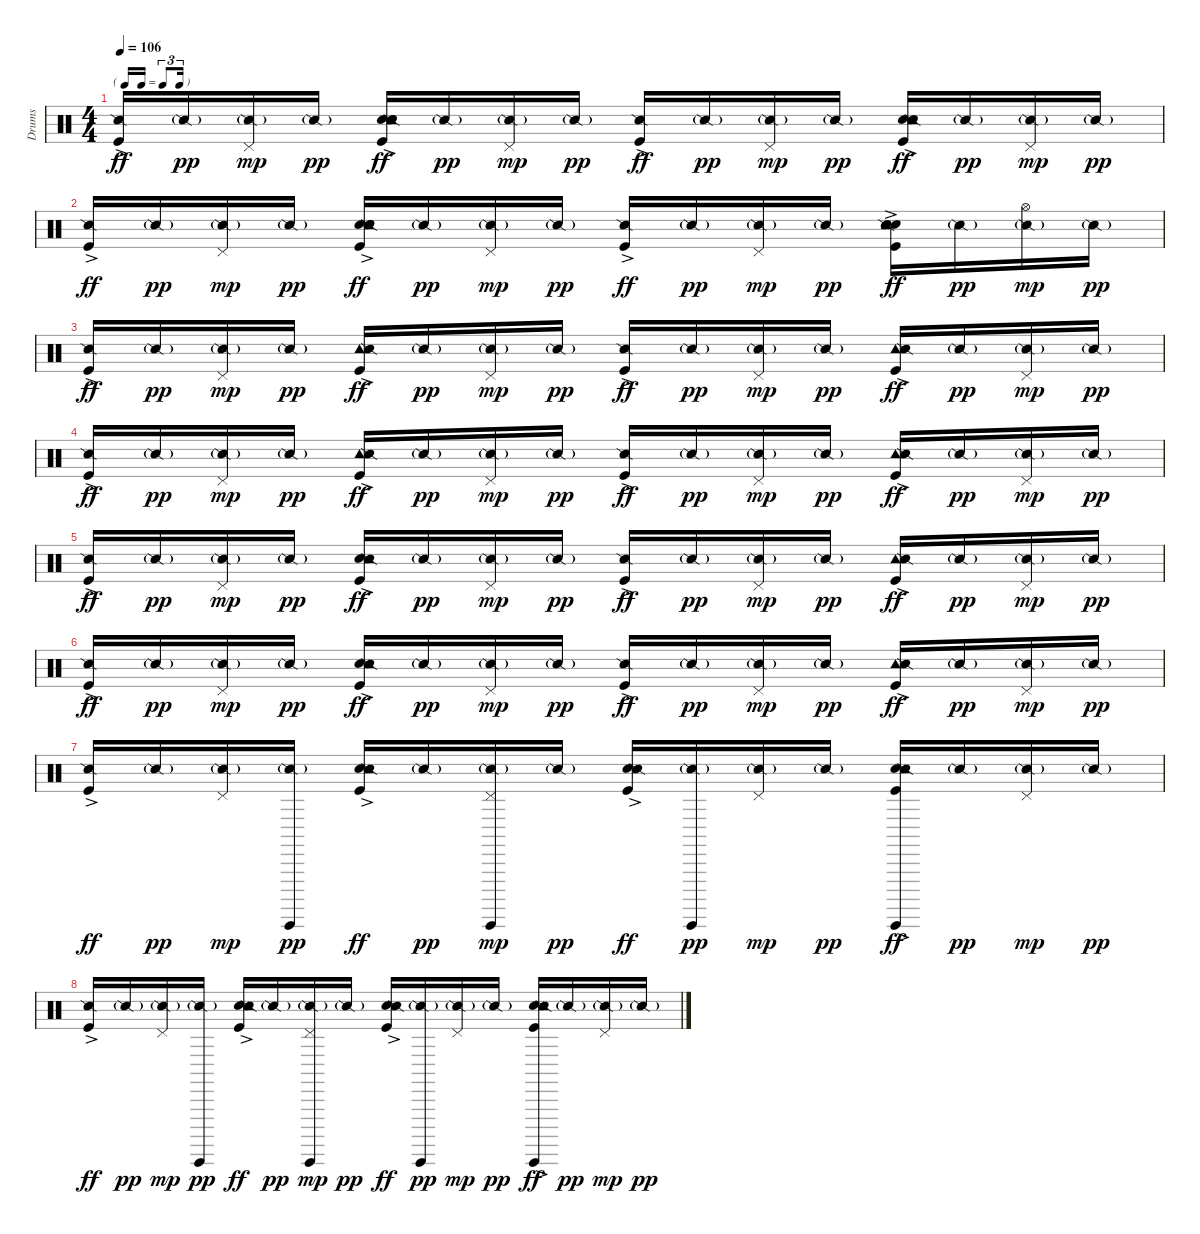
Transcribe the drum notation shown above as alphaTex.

\track ("Drums" "Drums") {instrument percussion}
\staff {score}
\articulation defaults
\ts (4 4)
\tf triplet16th
\tempo 106
\clef neutral
\ks c
("Kick (hit)"{ac} "Snare (side stick) 2").16{dy ff} "Snare (side stick) 2"{g}.16{dy pp} ("Pedal Hi-Hat (hit)" "Snare (side stick) 2"{g}).16{dy mp} "Snare (side stick) 2"{g}.16{dy pp} ("Kick (hit)"{ac} "Hand Clap (hit)" "Snare (hit) 2"{ac} "Electric Snare (hit)" "Tambourine (hit)" "Snare (side stick) 2").16{dy ff} "Snare (side stick) 2"{g}.16{dy pp} ("Pedal Hi-Hat (hit)" "Snare (side stick) 2"{g}).16{dy mp} "Snare (side stick) 2"{g}.16{dy pp} ("Kick (hit)"{ac} "Snare (side stick) 2").16{dy ff} "Snare (side stick) 2"{g}.16{dy pp} ("Pedal Hi-Hat (hit)" "Snare (side stick) 2"{g}).16{dy mp} "Snare (side stick) 2"{g}.16{dy pp} ("Kick (hit)"{ac} "Snare (hit) 2"{ac} "Electric Snare (hit)" "Tambourine (hit)" "Snare (side stick) 2").16{dy ff} "Snare (side stick) 2"{g}.16{dy pp} ("Pedal Hi-Hat (hit)" "Snare (side stick) 2"{g}).16{dy mp} "Snare (side stick) 2"{g}.16{dy pp} |
("Kick (hit)"{ac} "Snare (side stick) 2").16{dy ff} "Snare (side stick) 2"{g}.16{dy pp} ("Pedal Hi-Hat (hit)" "Snare (side stick) 2"{g}).16{dy mp} "Snare (side stick) 2"{g}.16{dy pp} ("Kick (hit)"{ac} "Hand Clap (hit)" "Snare (hit) 2"{ac} "Electric Snare (hit)" "Tambourine (hit)" "Snare (side stick) 2").16{dy ff} "Snare (side stick) 2"{g}.16{dy pp} ("Pedal Hi-Hat (hit)" "Snare (side stick) 2"{g}).16{dy mp} "Snare (side stick) 2"{g}.16{dy pp} ("Kick (hit)"{ac} "Snare (side stick) 2").16{dy ff} "Snare (side stick) 2"{g}.16{dy pp} ("Pedal Hi-Hat (hit)" "Snare (side stick) 2"{g}).16{dy mp} "Snare (side stick) 2"{g}.16{dy pp} ("Kick (hit)"{ac} "Snare (hit) 2"{ac} "Electric Snare (hit)" "Tambourine (hit)" "Snare (side stick) 2").16{dy ff} "Snare (side stick) 2"{g}.16{dy pp} ("Hi-Hat (open)" "Snare (side stick) 2"{g}).16{dy mp} "Snare (side stick) 2"{g}.16{dy pp} |
("Kick (hit)"{ac} "Snare (side stick) 2").16{dy ff} "Snare (side stick) 2"{g}.16{dy pp} ("Pedal Hi-Hat (hit)" "Snare (side stick) 2"{g}).16{dy mp} "Snare (side stick) 2"{g}.16{dy pp} ("Kick (hit)"{ac} "Tambourine (hit)" "Snare (side stick) 2").16{dy ff} "Snare (side stick) 2"{g}.16{dy pp} ("Pedal Hi-Hat (hit)" "Snare (side stick) 2"{g}).16{dy mp} "Snare (side stick) 2"{g}.16{dy pp} ("Kick (hit)"{ac} "Snare (side stick) 2").16{dy ff} "Snare (side stick) 2"{g}.16{dy pp} ("Pedal Hi-Hat (hit)" "Snare (side stick) 2"{g}).16{dy mp} "Snare (side stick) 2"{g}.16{dy pp} ("Kick (hit)"{ac} "Tambourine (hit)" "Snare (side stick) 2").16{dy ff} "Snare (side stick) 2"{g}.16{dy pp} ("Pedal Hi-Hat (hit)" "Snare (side stick) 2"{g}).16{dy mp} "Snare (side stick) 2"{g}.16{dy pp} |
("Kick (hit)"{ac} "Snare (side stick) 2").16{dy ff} "Snare (side stick) 2"{g}.16{dy pp} ("Pedal Hi-Hat (hit)" "Snare (side stick) 2"{g}).16{dy mp} "Snare (side stick) 2"{g}.16{dy pp} ("Kick (hit)"{ac} "Tambourine (hit)" "Snare (side stick) 2").16{dy ff} "Snare (side stick) 2"{g}.16{dy pp} ("Pedal Hi-Hat (hit)" "Snare (side stick) 2"{g}).16{dy mp} "Snare (side stick) 2"{g}.16{dy pp} ("Kick (hit)"{ac} "Snare (side stick) 2").16{dy ff} "Snare (side stick) 2"{g}.16{dy pp} ("Pedal Hi-Hat (hit)" "Snare (side stick) 2"{g}).16{dy mp} "Snare (side stick) 2"{g}.16{dy pp} ("Kick (hit)"{ac} "Tambourine (hit)" "Snare (side stick) 2").16{dy ff} "Snare (side stick) 2"{g}.16{dy pp} ("Pedal Hi-Hat (hit)" "Snare (side stick) 2"{g}).16{dy mp} "Snare (side stick) 2"{g}.16{dy pp} |
("Kick (hit)"{ac} "Snare (side stick) 2").16{dy ff} "Snare (side stick) 2"{g}.16{dy pp} ("Pedal Hi-Hat (hit)" "Snare (side stick) 2"{g}).16{dy mp} "Snare (side stick) 2"{g}.16{dy pp} ("Kick (hit)"{ac} "Hand Clap (hit)" "Tambourine (hit)" "Snare (side stick) 2").16{dy ff} "Snare (side stick) 2"{g}.16{dy pp} ("Pedal Hi-Hat (hit)" "Snare (side stick) 2"{g}).16{dy mp} "Snare (side stick) 2"{g}.16{dy pp} ("Kick (hit)"{ac} "Snare (side stick) 2").16{dy ff} "Snare (side stick) 2"{g}.16{dy pp} ("Pedal Hi-Hat (hit)" "Snare (side stick) 2"{g}).16{dy mp} "Snare (side stick) 2"{g}.16{dy pp} ("Kick (hit)"{ac} "Tambourine (hit)" "Snare (side stick) 2").16{dy ff} "Snare (side stick) 2"{g}.16{dy pp} ("Pedal Hi-Hat (hit)" "Snare (side stick) 2"{g}).16{dy mp} "Snare (side stick) 2"{g}.16{dy pp} |
("Kick (hit)"{ac} "Snare (side stick) 2").16{dy ff} "Snare (side stick) 2"{g}.16{dy pp} ("Pedal Hi-Hat (hit)" "Snare (side stick) 2"{g}).16{dy mp} "Snare (side stick) 2"{g}.16{dy pp} ("Kick (hit)"{ac} "Hand Clap (hit)" "Tambourine (hit)" "Snare (side stick) 2").16{dy ff} "Snare (side stick) 2"{g}.16{dy pp} ("Pedal Hi-Hat (hit)" "Snare (side stick) 2"{g}).16{dy mp} "Snare (side stick) 2"{g}.16{dy pp} ("Kick (hit)"{ac} "Snare (side stick) 2").16{dy ff} "Snare (side stick) 2"{g}.16{dy pp} ("Pedal Hi-Hat (hit)" "Snare (side stick) 2"{g}).16{dy mp} "Snare (side stick) 2"{g}.16{dy pp} ("Kick (hit)"{ac} "Tambourine (hit)" "Snare (side stick) 2").16{dy ff} "Snare (side stick) 2"{g}.16{dy pp} ("Pedal Hi-Hat (hit)" "Snare (side stick) 2"{g}).16{dy mp} "Snare (side stick) 2"{g}.16{dy pp} |
("Kick (hit)"{ac} "Snare (side stick) 2").16{dy ff} "Snare (side stick) 2"{g}.16{dy pp} ("Pedal Hi-Hat (hit)" "Snare (side stick) 2"{g}).16{dy mp} ("Guiro (hit)" "Snare (side stick) 2"{g}).16{dy pp} ("Kick (hit)"{ac} "Hand Clap (hit)" "Tambourine (hit)" "Snare (side stick) 2").16{dy ff} "Snare (side stick) 2"{g}.16{dy pp} ("Guiro (hit)" "Pedal Hi-Hat (hit)" "Snare (side stick) 2"{g}).16{dy mp} "Snare (side stick) 2"{g}.16{dy pp} ("Kick (hit)"{ac} "Hand Clap (hit)" "Snare (side stick) 2").16{dy ff} ("Guiro (hit)" "Snare (side stick) 2"{g}).16{dy pp} ("Pedal Hi-Hat (hit)" "Snare (side stick) 2"{g}).16{dy mp} "Snare (side stick) 2"{g}.16{dy pp} ("Kick (hit)"{ac} "Guiro (hit)" "Hand Clap (hit)" "Tambourine (hit)" "Snare (side stick) 2").16{dy ff} "Snare (side stick) 2"{g}.16{dy pp} ("Pedal Hi-Hat (hit)" "Snare (side stick) 2"{g}).16{dy mp} "Snare (side stick) 2"{g}.16{dy pp} |
("Kick (hit)"{ac} "Snare (side stick) 2").16{dy ff} "Snare (side stick) 2"{g}.16{dy pp} ("Pedal Hi-Hat (hit)" "Snare (side stick) 2"{g}).16{dy mp} ("Guiro (hit)" "Snare (side stick) 2"{g}).16{dy pp} ("Kick (hit)"{ac} "Hand Clap (hit)" "Tambourine (hit)" "Snare (side stick) 2").16{dy ff} "Snare (side stick) 2"{g}.16{dy pp} ("Guiro (hit)" "Pedal Hi-Hat (hit)" "Snare (side stick) 2"{g}).16{dy mp} "Snare (side stick) 2"{g}.16{dy pp} ("Kick (hit)"{ac} "Hand Clap (hit)" "Snare (side stick) 2").16{dy ff} ("Guiro (hit)" "Snare (side stick) 2"{g}).16{dy pp} ("Pedal Hi-Hat (hit)" "Snare (side stick) 2"{g}).16{dy mp} "Snare (side stick) 2"{g}.16{dy pp} ("Kick (hit)"{ac} "Guiro (hit)" "Hand Clap (hit)" "Tambourine (hit)" "Snare (side stick) 2").16{dy ff} "Snare (side stick) 2"{g}.16{dy pp} ("Pedal Hi-Hat (hit)" "Snare (side stick) 2"{g}).16{dy mp} "Snare (side stick) 2"{g}.16{dy pp}
